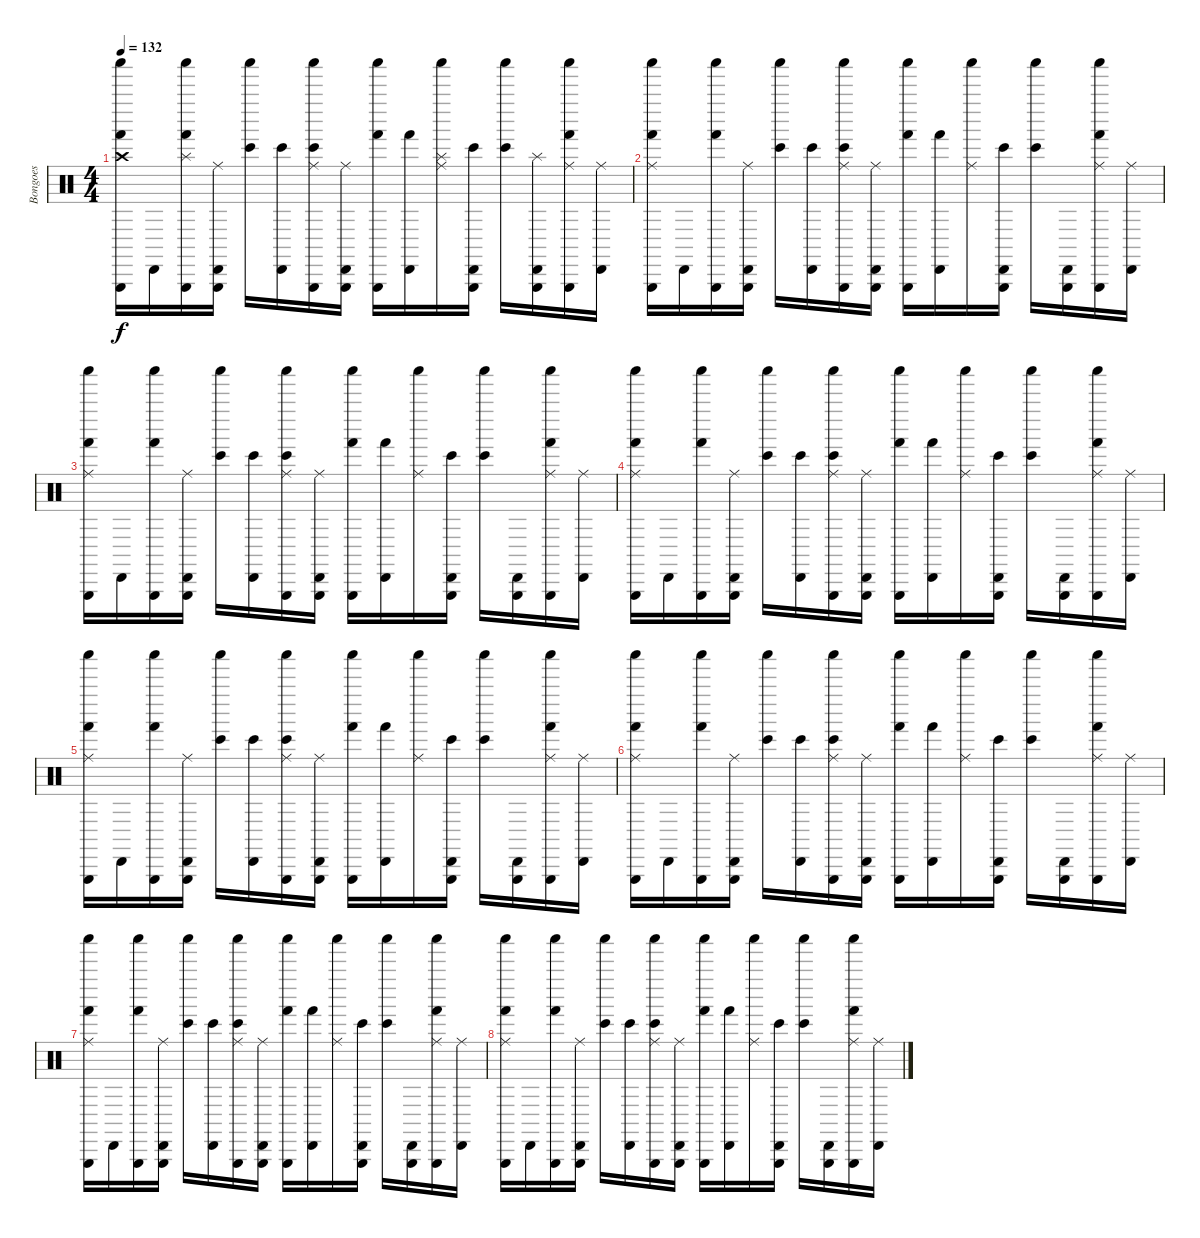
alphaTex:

\track ("Bongoes" "Bongoes") {instrument percussion}
\staff {score}
\articulation defaults
\ts (4 4)
\tempo 132
\clef neutral
\ks c
("Shaker (hit)" "Triangle (hit)" "Hand (hit)" "Crash high (hit)").16{dy f} "Cabasa (hit)".16 ("Shaker (hit)" "Triangle (hit)" "Hand (hit)" "Splash (hit)").16 ("Cabasa (hit)" "Triangle (hit)" "Ride (middle)").16 ("Shaker (hit)" "Bongo High (hit)").16 ("Cabasa (hit)" "Bongo High (hit)").16 ("Shaker (hit)" "Triangle (hit)" "Bongo High (hit)" "Ride (middle)").16 ("Cabasa (hit)" "Triangle (hit)" "Ride (middle)").16 ("Shaker (hit)" "Triangle (hit)" "Hand (hit)").16 ("Cabasa (hit)" "Hand (hit)").16 ("Shaker (hit)" "Splash (hit)" "Ride (middle)").16 ("Cabasa (hit)" "Triangle (hit)" "Bongo High (hit)").16 ("Shaker (hit)" "Bongo High (hit)").16 ("Cabasa (hit)" "Triangle (hit)" "Splash (hit)").16 ("Shaker (hit)" "Triangle (hit)" "Hand (hit)" "Ride (middle)").16 ("Cabasa (hit)" "Ride (middle)").16 |
("Shaker (hit)" "Triangle (hit)" "Hand (hit)" "Ride (middle)").16 "Cabasa (hit)".16 ("Shaker (hit)" "Triangle (hit)" "Hand (hit)").16 ("Cabasa (hit)" "Triangle (hit)" "Ride (middle)").16 ("Shaker (hit)" "Bongo High (hit)").16 ("Cabasa (hit)" "Bongo High (hit)").16 ("Shaker (hit)" "Triangle (hit)" "Bongo High (hit)" "Ride (middle)").16 ("Cabasa (hit)" "Triangle (hit)" "Ride (middle)").16 ("Shaker (hit)" "Triangle (hit)" "Hand (hit)").16 ("Cabasa (hit)" "Hand (hit)").16 ("Shaker (hit)" "Ride (middle)").16 ("Cabasa (hit)" "Triangle (hit)" "Bongo High (hit)").16 ("Shaker (hit)" "Bongo High (hit)").16 ("Cabasa (hit)" "Triangle (hit)").16 ("Shaker (hit)" "Triangle (hit)" "Hand (hit)" "Ride (middle)").16 ("Cabasa (hit)" "Ride (middle)").16 |
("Shaker (hit)" "Triangle (hit)" "Hand (hit)" "Ride (middle)").16 "Cabasa (hit)".16 ("Shaker (hit)" "Triangle (hit)" "Hand (hit)").16 ("Cabasa (hit)" "Triangle (hit)" "Ride (middle)").16 ("Shaker (hit)" "Bongo High (hit)").16 ("Cabasa (hit)" "Bongo High (hit)").16 ("Shaker (hit)" "Triangle (hit)" "Bongo High (hit)" "Ride (middle)").16 ("Cabasa (hit)" "Triangle (hit)" "Ride (middle)").16 ("Shaker (hit)" "Triangle (hit)" "Hand (hit)").16 ("Cabasa (hit)" "Hand (hit)").16 ("Shaker (hit)" "Ride (middle)").16 ("Cabasa (hit)" "Triangle (hit)" "Bongo High (hit)").16 ("Shaker (hit)" "Bongo High (hit)").16 ("Cabasa (hit)" "Triangle (hit)").16 ("Shaker (hit)" "Triangle (hit)" "Hand (hit)" "Ride (middle)").16 ("Cabasa (hit)" "Ride (middle)").16 |
("Shaker (hit)" "Triangle (hit)" "Hand (hit)" "Ride (middle)").16 "Cabasa (hit)".16 ("Shaker (hit)" "Triangle (hit)" "Hand (hit)").16 ("Cabasa (hit)" "Triangle (hit)" "Ride (middle)").16 ("Shaker (hit)" "Bongo High (hit)").16 ("Cabasa (hit)" "Bongo High (hit)").16 ("Shaker (hit)" "Triangle (hit)" "Bongo High (hit)" "Ride (middle)").16 ("Cabasa (hit)" "Triangle (hit)" "Ride (middle)").16 ("Shaker (hit)" "Triangle (hit)" "Hand (hit)").16 ("Cabasa (hit)" "Hand (hit)").16 ("Shaker (hit)" "Ride (middle)").16 ("Cabasa (hit)" "Triangle (hit)" "Bongo High (hit)").16 ("Shaker (hit)" "Bongo High (hit)").16 ("Cabasa (hit)" "Triangle (hit)").16 ("Shaker (hit)" "Triangle (hit)" "Hand (hit)" "Ride (middle)").16 ("Cabasa (hit)" "Ride (middle)").16 |
("Shaker (hit)" "Triangle (hit)" "Hand (hit)" "Ride (middle)").16 "Cabasa (hit)".16 ("Shaker (hit)" "Triangle (hit)" "Hand (hit)").16 ("Cabasa (hit)" "Triangle (hit)" "Ride (middle)").16 ("Shaker (hit)" "Bongo High (hit)").16 ("Cabasa (hit)" "Bongo High (hit)").16 ("Shaker (hit)" "Triangle (hit)" "Bongo High (hit)" "Ride (middle)").16 ("Cabasa (hit)" "Triangle (hit)" "Ride (middle)").16 ("Shaker (hit)" "Triangle (hit)" "Hand (hit)").16 ("Cabasa (hit)" "Hand (hit)").16 ("Shaker (hit)" "Ride (middle)").16 ("Cabasa (hit)" "Triangle (hit)" "Bongo High (hit)").16 ("Shaker (hit)" "Bongo High (hit)").16 ("Cabasa (hit)" "Triangle (hit)").16 ("Shaker (hit)" "Triangle (hit)" "Hand (hit)" "Ride (middle)").16 ("Cabasa (hit)" "Ride (middle)").16 |
("Shaker (hit)" "Triangle (hit)" "Hand (hit)" "Ride (middle)").16 "Cabasa (hit)".16 ("Shaker (hit)" "Triangle (hit)" "Hand (hit)").16 ("Cabasa (hit)" "Triangle (hit)" "Ride (middle)").16 ("Shaker (hit)" "Bongo High (hit)").16 ("Cabasa (hit)" "Bongo High (hit)").16 ("Shaker (hit)" "Triangle (hit)" "Bongo High (hit)" "Ride (middle)").16 ("Cabasa (hit)" "Triangle (hit)" "Ride (middle)").16 ("Shaker (hit)" "Triangle (hit)" "Hand (hit)").16 ("Cabasa (hit)" "Hand (hit)").16 ("Shaker (hit)" "Ride (middle)").16 ("Cabasa (hit)" "Triangle (hit)" "Bongo High (hit)").16 ("Shaker (hit)" "Bongo High (hit)").16 ("Cabasa (hit)" "Triangle (hit)").16 ("Shaker (hit)" "Triangle (hit)" "Hand (hit)" "Ride (middle)").16 ("Cabasa (hit)" "Ride (middle)").16 |
("Shaker (hit)" "Triangle (hit)" "Hand (hit)" "Ride (middle)").16 "Cabasa (hit)".16 ("Shaker (hit)" "Triangle (hit)" "Hand (hit)").16 ("Cabasa (hit)" "Triangle (hit)" "Ride (middle)").16 ("Shaker (hit)" "Bongo High (hit)").16 ("Cabasa (hit)" "Bongo High (hit)").16 ("Shaker (hit)" "Triangle (hit)" "Bongo High (hit)" "Ride (middle)").16 ("Cabasa (hit)" "Triangle (hit)" "Ride (middle)").16 ("Shaker (hit)" "Triangle (hit)" "Hand (hit)").16 ("Cabasa (hit)" "Hand (hit)").16 ("Shaker (hit)" "Ride (middle)").16 ("Cabasa (hit)" "Triangle (hit)" "Bongo High (hit)").16 ("Shaker (hit)" "Bongo High (hit)").16 ("Cabasa (hit)" "Triangle (hit)").16 ("Shaker (hit)" "Triangle (hit)" "Hand (hit)" "Ride (middle)").16 ("Cabasa (hit)" "Ride (middle)").16 |
("Shaker (hit)" "Triangle (hit)" "Hand (hit)" "Ride (middle)").16 "Cabasa (hit)".16 ("Shaker (hit)" "Triangle (hit)" "Hand (hit)").16 ("Cabasa (hit)" "Triangle (hit)" "Ride (middle)").16 ("Shaker (hit)" "Bongo High (hit)").16 ("Cabasa (hit)" "Bongo High (hit)").16 ("Shaker (hit)" "Triangle (hit)" "Bongo High (hit)" "Ride (middle)").16 ("Cabasa (hit)" "Triangle (hit)" "Ride (middle)").16 ("Shaker (hit)" "Triangle (hit)" "Hand (hit)").16 ("Cabasa (hit)" "Hand (hit)").16 ("Shaker (hit)" "Ride (middle)").16 ("Cabasa (hit)" "Triangle (hit)" "Bongo High (hit)").16 ("Shaker (hit)" "Bongo High (hit)").16 ("Cabasa (hit)" "Triangle (hit)").16 ("Shaker (hit)" "Triangle (hit)" "Hand (hit)" "Ride (middle)").16 ("Cabasa (hit)" "Ride (middle)").16
